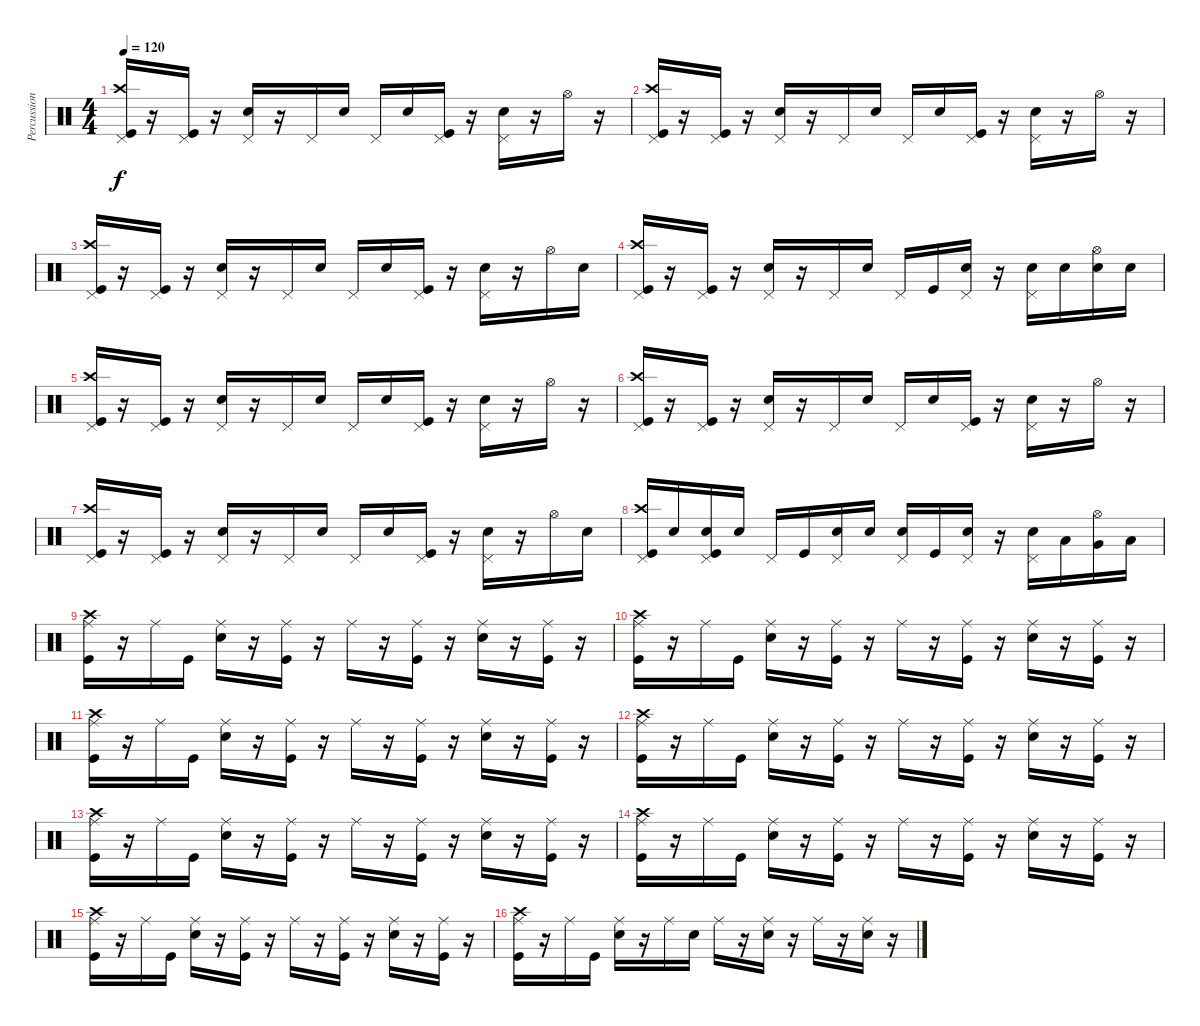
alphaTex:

\track ("Percussion" "Percussion") {instrument percussion}
\staff {score}
\articulation defaults
\ts (4 4)
\tempo 120
\clef neutral
\ks c
("Pedal Hi-Hat (hit)" "Crash high (hit)" "Kick (hit)").16{dy f} r.16 ("Pedal Hi-Hat (hit)" "Kick (hit)").16 r.16 ("Pedal Hi-Hat (hit)" "Electric Snare (hit)").16 r.16 "Pedal Hi-Hat (hit)".16 "Electric Snare (hit)".16 "Pedal Hi-Hat (hit)".16 "Electric Snare (hit)".16 ("Pedal Hi-Hat (hit)" "Kick (hit)").16 r.16 ("Pedal Hi-Hat (hit)" "Electric Snare (hit)").16 r.16 "Hi-Hat (open)".16 r.16 |
("Pedal Hi-Hat (hit)" "Crash high (hit)" "Kick (hit)").16 r.16 ("Pedal Hi-Hat (hit)" "Kick (hit)").16 r.16 ("Pedal Hi-Hat (hit)" "Electric Snare (hit)").16 r.16 "Pedal Hi-Hat (hit)".16 "Electric Snare (hit)".16 "Pedal Hi-Hat (hit)".16 "Electric Snare (hit)".16 ("Pedal Hi-Hat (hit)" "Kick (hit)").16 r.16 ("Pedal Hi-Hat (hit)" "Electric Snare (hit)").16 r.16 "Hi-Hat (open)".16 r.16 |
("Pedal Hi-Hat (hit)" "Crash high (hit)" "Kick (hit)").16 r.16 ("Pedal Hi-Hat (hit)" "Kick (hit)").16 r.16 ("Pedal Hi-Hat (hit)" "Electric Snare (hit)").16 r.16 "Pedal Hi-Hat (hit)".16 "Electric Snare (hit)".16 "Pedal Hi-Hat (hit)".16 "Electric Snare (hit)".16 ("Pedal Hi-Hat (hit)" "Kick (hit)").16 r.16 ("Pedal Hi-Hat (hit)" "Electric Snare (hit)").16 r.16 "Hi-Hat (open)".16 "Electric Snare (hit)".16 |
("Pedal Hi-Hat (hit)" "Crash high (hit)" "Kick (hit)").16 r.16 ("Pedal Hi-Hat (hit)" "Kick (hit)").16 r.16 ("Pedal Hi-Hat (hit)" "Electric Snare (hit)").16 r.16 "Pedal Hi-Hat (hit)".16 "Electric Snare (hit)".16 "Pedal Hi-Hat (hit)".16 "Kick (hit)".16 ("Pedal Hi-Hat (hit)" "Electric Snare (hit)").16 r.16 ("Pedal Hi-Hat (hit)" "Electric Snare (hit)").16 "Electric Snare (hit)".16 ("Hi-Hat (open)" "Electric Snare (hit)").16 "Electric Snare (hit)".16 |
("Pedal Hi-Hat (hit)" "Crash high (hit)" "Kick (hit)").16 r.16 ("Pedal Hi-Hat (hit)" "Kick (hit)").16 r.16 ("Pedal Hi-Hat (hit)" "Electric Snare (hit)").16 r.16 "Pedal Hi-Hat (hit)".16 "Electric Snare (hit)".16 "Pedal Hi-Hat (hit)".16 "Electric Snare (hit)".16 ("Pedal Hi-Hat (hit)" "Kick (hit)").16 r.16 ("Pedal Hi-Hat (hit)" "Electric Snare (hit)").16 r.16 "Hi-Hat (open)".16 r.16 |
("Pedal Hi-Hat (hit)" "Crash high (hit)" "Kick (hit)").16 r.16 ("Pedal Hi-Hat (hit)" "Kick (hit)").16 r.16 ("Pedal Hi-Hat (hit)" "Electric Snare (hit)").16 r.16 "Pedal Hi-Hat (hit)".16 "Electric Snare (hit)".16 "Pedal Hi-Hat (hit)".16 "Electric Snare (hit)".16 ("Pedal Hi-Hat (hit)" "Kick (hit)").16 r.16 ("Pedal Hi-Hat (hit)" "Electric Snare (hit)").16 r.16 "Hi-Hat (open)".16 r.16 |
("Pedal Hi-Hat (hit)" "Crash high (hit)" "Kick (hit)").16 r.16 ("Pedal Hi-Hat (hit)" "Kick (hit)").16 r.16 ("Pedal Hi-Hat (hit)" "Electric Snare (hit)").16 r.16 "Pedal Hi-Hat (hit)".16 "Electric Snare (hit)".16 "Pedal Hi-Hat (hit)".16 "Electric Snare (hit)".16 ("Pedal Hi-Hat (hit)" "Kick (hit)").16 r.16 ("Pedal Hi-Hat (hit)" "Electric Snare (hit)").16 r.16 "Hi-Hat (open)".16 "Electric Snare (hit)".16 |
("Pedal Hi-Hat (hit)" "Crash high (hit)" "Kick (hit)").16 "Electric Snare (hit)".16 ("Pedal Hi-Hat (hit)" "Electric Snare (hit)" "Kick (hit)").16 "Electric Snare (hit)".16 "Pedal Hi-Hat (hit)".16 "Kick (hit)".16 ("Pedal Hi-Hat (hit)" "Electric Snare (hit)").16 "Electric Snare (hit)".16 ("Pedal Hi-Hat (hit)" "Electric Snare (hit)").16 "Kick (hit)".16 ("Pedal Hi-Hat (hit)" "Electric Snare (hit)").16 r.16 ("Pedal Hi-Hat (hit)" "Electric Snare (hit)").16 "Low Tom (hit)".16 ("Hi-Hat (open)" "Very Low Tom (hit)").16 "Low Floor Tom (hit)".16 |
("Crash high (hit)" "Ride (middle)" "Kick (hit)").16 r.16 "Ride (middle)".16 "Kick (hit)".16 ("Ride (middle)" "Electric Snare (hit)").16 r.16 ("Ride (middle)" "Kick (hit)").16 r.16 "Ride (middle)".16 r.16 ("Ride (middle)" "Kick (hit)").16 r.16 ("Ride (middle)" "Electric Snare (hit)").16 r.16 ("Ride (middle)" "Kick (hit)").16 r.16 |
("Crash high (hit)" "Ride (middle)" "Kick (hit)").16 r.16 "Ride (middle)".16 "Kick (hit)".16 ("Ride (middle)" "Electric Snare (hit)").16 r.16 ("Ride (middle)" "Kick (hit)").16 r.16 "Ride (middle)".16 r.16 ("Ride (middle)" "Kick (hit)").16 r.16 ("Ride (middle)" "Electric Snare (hit)").16 r.16 ("Ride (middle)" "Kick (hit)").16 r.16 |
("Crash high (hit)" "Ride (middle)" "Kick (hit)").16 r.16 "Ride (middle)".16 "Kick (hit)".16 ("Ride (middle)" "Electric Snare (hit)").16 r.16 ("Ride (middle)" "Kick (hit)").16 r.16 "Ride (middle)".16 r.16 ("Ride (middle)" "Kick (hit)").16 r.16 ("Ride (middle)" "Electric Snare (hit)").16 r.16 ("Ride (middle)" "Kick (hit)").16 r.16 |
("Crash high (hit)" "Ride (middle)" "Kick (hit)").16 r.16 "Ride (middle)".16 "Kick (hit)".16 ("Ride (middle)" "Electric Snare (hit)").16 r.16 ("Ride (middle)" "Kick (hit)").16 r.16 "Ride (middle)".16 r.16 ("Ride (middle)" "Kick (hit)").16 r.16 ("Ride (middle)" "Electric Snare (hit)").16 r.16 ("Ride (middle)" "Kick (hit)").16 r.16 |
("Crash high (hit)" "Ride (middle)" "Kick (hit)").16 r.16 "Ride (middle)".16 "Kick (hit)".16 ("Ride (middle)" "Electric Snare (hit)").16 r.16 ("Ride (middle)" "Kick (hit)").16 r.16 "Ride (middle)".16 r.16 ("Ride (middle)" "Kick (hit)").16 r.16 ("Ride (middle)" "Electric Snare (hit)").16 r.16 ("Ride (middle)" "Kick (hit)").16 r.16 |
("Crash high (hit)" "Ride (middle)" "Kick (hit)").16 r.16 "Ride (middle)".16 "Kick (hit)".16 ("Ride (middle)" "Electric Snare (hit)").16 r.16 ("Ride (middle)" "Kick (hit)").16 r.16 "Ride (middle)".16 r.16 ("Ride (middle)" "Kick (hit)").16 r.16 ("Ride (middle)" "Electric Snare (hit)").16 r.16 ("Ride (middle)" "Kick (hit)").16 r.16 |
("Crash high (hit)" "Ride (middle)" "Kick (hit)").16 r.16 "Ride (middle)".16 "Kick (hit)".16 ("Ride (middle)" "Electric Snare (hit)").16 r.16 ("Ride (middle)" "Kick (hit)").16 r.16 "Ride (middle)".16 r.16 ("Ride (middle)" "Kick (hit)").16 r.16 ("Ride (middle)" "Electric Snare (hit)").16 r.16 ("Ride (middle)" "Kick (hit)").16 r.16 |
("Crash high (hit)" "Ride (middle)" "Kick (hit)").16 r.16 "Ride (middle)".16 "Kick (hit)".16 ("Ride (middle)" "Electric Snare (hit)").16 r.16 "Ride (middle)".16 "Electric Snare (hit)".16 "Ride (middle)".16 r.16 ("Ride (middle)" "Electric Snare (hit)").16 r.16 "Ride (middle)".16 r.16 ("Ride (middle)" "Electric Snare (hit)").16 r.16
